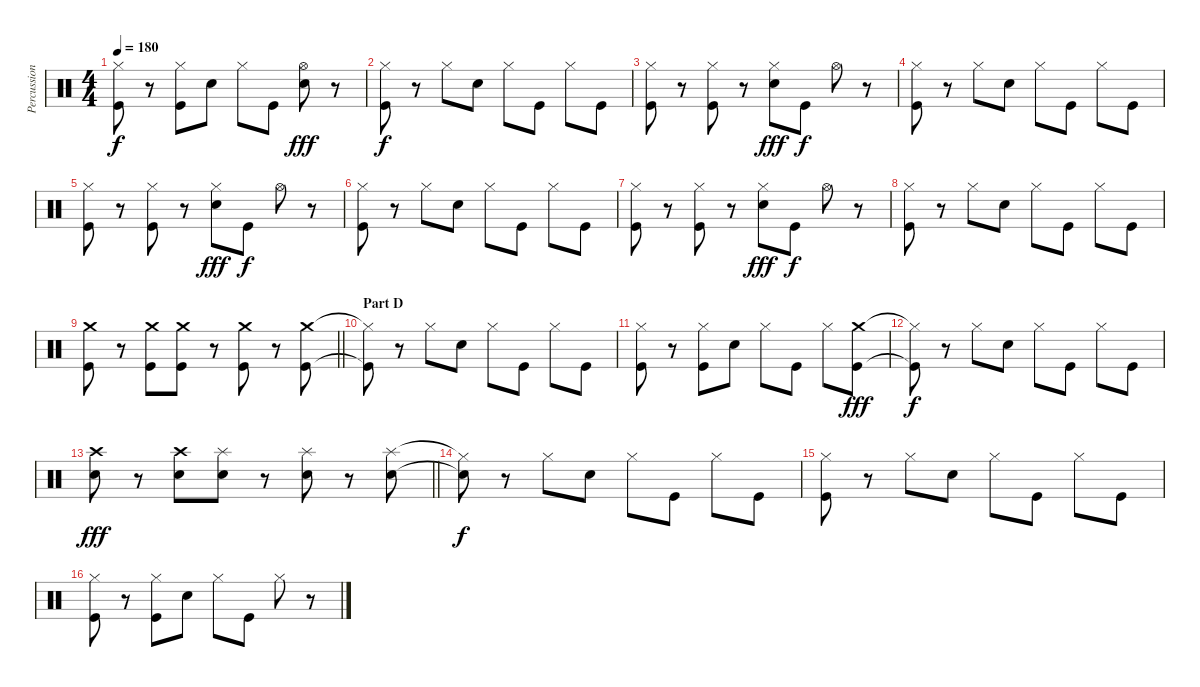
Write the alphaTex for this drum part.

\track ("Percussion" "Percussion") {instrument percussion}
\staff {score}
\articulation defaults
\ts (4 4)
\tempo 180
\clef neutral
\ks c
("Hi-Hat (closed)" "Kick (hit)").8{dy f} r.8 ("Hi-Hat (closed)" "Kick (hit)").8 "Electric Snare (hit)".8 "Hi-Hat (closed)".8 "Kick (hit)".8 ("Hi-Hat (open)" "Electric Snare (hit)").8{dy fff} r.8 |
("Hi-Hat (closed)" "Kick (hit)").8{dy f} r.8 "Hi-Hat (closed)".8 "Electric Snare (hit)".8 "Hi-Hat (closed)".8 "Kick (hit)".8 "Hi-Hat (closed)".8 "Kick (hit)".8 |
("Hi-Hat (closed)" "Kick (hit)").8 r.8 ("Hi-Hat (closed)" "Kick (hit)").8 r.8 ("Hi-Hat (closed)" "Electric Snare (hit)").8{dy fff} "Kick (hit)".8{dy f} "Hi-Hat (open)".8 r.8 |
("Hi-Hat (closed)" "Kick (hit)").8 r.8 "Hi-Hat (closed)".8 "Electric Snare (hit)".8 "Hi-Hat (closed)".8 "Kick (hit)".8 "Hi-Hat (closed)".8 "Kick (hit)".8 |
("Hi-Hat (closed)" "Kick (hit)").8 r.8 ("Hi-Hat (closed)" "Kick (hit)").8 r.8 ("Hi-Hat (closed)" "Electric Snare (hit)").8{dy fff} "Kick (hit)".8{dy f} "Hi-Hat (open)".8 r.8 |
("Hi-Hat (closed)" "Kick (hit)").8 r.8 "Hi-Hat (closed)".8 "Electric Snare (hit)".8 "Hi-Hat (closed)".8 "Kick (hit)".8 "Hi-Hat (closed)".8 "Kick (hit)".8 |
("Hi-Hat (closed)" "Kick (hit)").8 r.8 ("Hi-Hat (closed)" "Kick (hit)").8 r.8 ("Hi-Hat (closed)" "Electric Snare (hit)").8{dy fff} "Kick (hit)".8{dy f} "Hi-Hat (open)".8 r.8 |
("Hi-Hat (closed)" "Kick (hit)").8 r.8 "Hi-Hat (closed)".8 "Electric Snare (hit)".8 "Hi-Hat (closed)".8 "Kick (hit)".8 "Hi-Hat (closed)".8 "Kick (hit)".8 |
\barLineRight lightlight
("Crash medium (hit)" "Kick (hit)").8 r.8 ("Crash medium (hit)" "Kick (hit)").8 ("Crash medium (hit)" "Kick (hit)").8 r.8 ("Crash medium (hit)" "Kick (hit)").8 r.8 ("Crash medium (hit)" "Kick (hit)").8 |
\section ("" "Part D")
("Hi-Hat (closed)"{t} "Kick (hit)"{t}).8 r.8 "Hi-Hat (closed)".8 "Electric Snare (hit)".8 "Hi-Hat (closed)".8 "Kick (hit)".8 "Hi-Hat (closed)".8 "Kick (hit)".8 |
("Hi-Hat (closed)" "Kick (hit)").8 r.8 ("Hi-Hat (closed)" "Kick (hit)").8 "Electric Snare (hit)".8 "Hi-Hat (closed)".8 "Kick (hit)".8 "Hi-Hat (closed)".8 ("Crash medium (hit)" "Kick (hit)").8{dy fff} |
("Hi-Hat (closed)"{t} "Kick (hit)"{t}).8{dy f} r.8 "Hi-Hat (closed)".8 "Electric Snare (hit)".8 "Hi-Hat (closed)".8 "Kick (hit)".8 "Hi-Hat (closed)".8 "Kick (hit)".8 |
\barLineRight lightlight
("Crash high (hit)" "Electric Snare (hit)").8{dy fff} r.8 ("Crash high (hit)" "Electric Snare (hit)").8 ("Splash (hit)" "Electric Snare (hit)").8 r.8 ("Splash (hit)" "Electric Snare (hit)").8 r.8 ("Splash (hit)" "Electric Snare (hit)").8 |
("Hi-Hat (closed)"{t} "Snare (hit)"{t}).8{dy f} r.8 "Hi-Hat (closed)".8 "Electric Snare (hit)".8 "Hi-Hat (closed)".8 "Kick (hit)".8 "Hi-Hat (closed)".8 "Kick (hit)".8 |
("Hi-Hat (closed)" "Kick (hit)").8 r.8 "Hi-Hat (closed)".8 "Electric Snare (hit)".8 "Hi-Hat (closed)".8 "Kick (hit)".8 "Hi-Hat (closed)".8 "Kick (hit)".8 |
("Hi-Hat (closed)" "Kick (hit)").8 r.8 ("Hi-Hat (closed)" "Kick (hit)").8 "Electric Snare (hit)".8 "Hi-Hat (closed)".8 "Kick (hit)".8 "Hi-Hat (closed)".8 r.8
